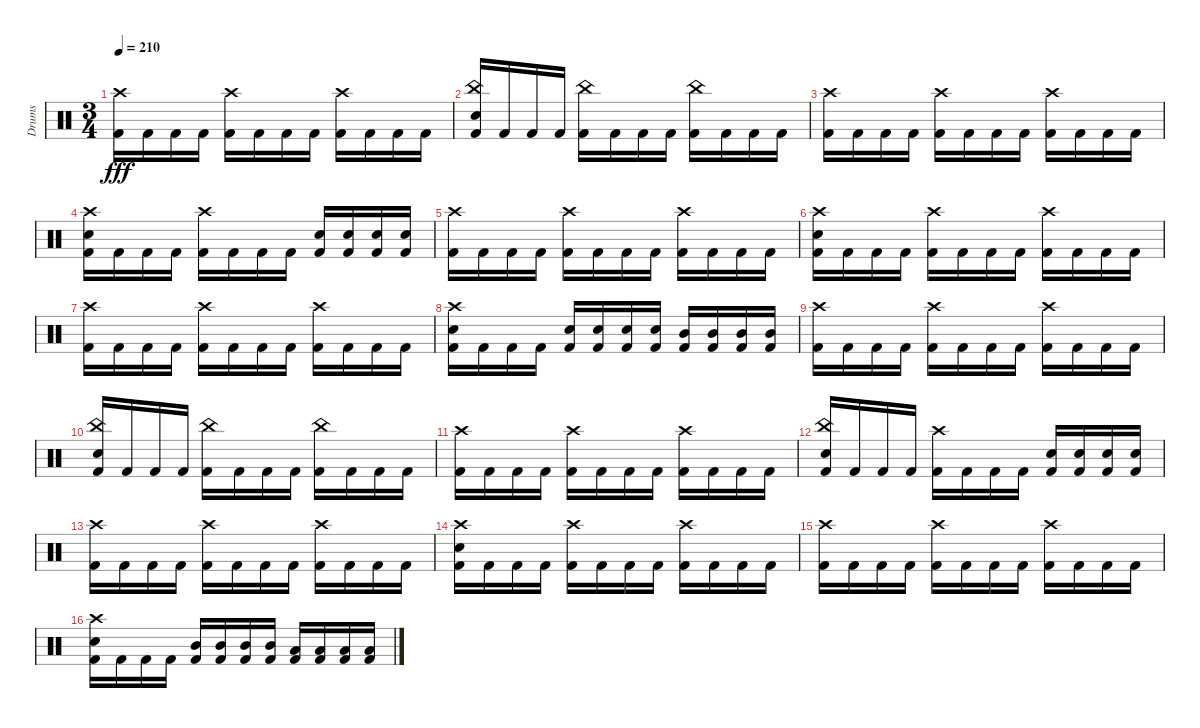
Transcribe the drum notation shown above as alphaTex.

\track ("Drums" "Drums") {instrument percussion}
\staff {score}
\articulation defaults
\ts (3 4)
\tempo 210
\clef neutral
\ks c
("Crash high (hit)" "Kick (hit) 2").16{dy fff} "Kick (hit) 2".16 "Kick (hit) 2".16 "Kick (hit) 2".16 ("Crash high (hit)" "Kick (hit) 2").16 "Kick (hit) 2".16 "Kick (hit) 2".16 "Kick (hit) 2".16 ("Crash high (hit)" "Kick (hit) 2").16 "Kick (hit) 2".16 "Kick (hit) 2".16 "Kick (hit) 2".16 |
("China (hit)" "Snare (hit) 2" "Kick (hit) 2").16 "Kick (hit) 2".16 "Kick (hit) 2".16 "Kick (hit) 2".16 ("China (hit)" "Kick (hit) 2").16 "Kick (hit) 2".16 "Kick (hit) 2".16 "Kick (hit) 2".16 ("China (hit)" "Kick (hit) 2").16 "Kick (hit) 2".16 "Kick (hit) 2".16 "Kick (hit) 2".16 |
("Crash high (hit)" "Kick (hit) 2").16 "Kick (hit) 2".16 "Kick (hit) 2".16 "Kick (hit) 2".16 ("Crash high (hit)" "Kick (hit) 2").16 "Kick (hit) 2".16 "Kick (hit) 2".16 "Kick (hit) 2".16 ("Crash high (hit)" "Kick (hit) 2").16 "Kick (hit) 2".16 "Kick (hit) 2".16 "Kick (hit) 2".16 |
("Crash high (hit)" "Snare (hit) 2" "Kick (hit) 2").16 "Kick (hit) 2".16 "Kick (hit) 2".16 "Kick (hit) 2".16 ("Crash high (hit)" "Kick (hit) 2").16 "Kick (hit) 2".16 "Kick (hit) 2".16 "Kick (hit) 2".16 ("Snare (hit) 2" "Kick (hit) 2").16 ("Snare (hit) 2" "Kick (hit) 2").16 ("Snare (hit) 2" "Kick (hit) 2").16 ("Snare (hit) 2" "Kick (hit) 2").16 |
("Crash high (hit)" "Kick (hit) 2").16 "Kick (hit) 2".16 "Kick (hit) 2".16 "Kick (hit) 2".16 ("Crash high (hit)" "Kick (hit) 2").16 "Kick (hit) 2".16 "Kick (hit) 2".16 "Kick (hit) 2".16 ("Crash high (hit)" "Kick (hit) 2").16 "Kick (hit) 2".16 "Kick (hit) 2".16 "Kick (hit) 2".16 |
("Crash high (hit)" "Snare (hit) 2" "Kick (hit) 2").16 "Kick (hit) 2".16 "Kick (hit) 2".16 "Kick (hit) 2".16 ("Crash high (hit)" "Kick (hit) 2").16 "Kick (hit) 2".16 "Kick (hit) 2".16 "Kick (hit) 2".16 ("Crash high (hit)" "Kick (hit) 2").16 "Kick (hit) 2".16 "Kick (hit) 2".16 "Kick (hit) 2".16 |
("Crash high (hit)" "Kick (hit) 2").16 "Kick (hit) 2".16 "Kick (hit) 2".16 "Kick (hit) 2".16 ("Crash high (hit)" "Kick (hit) 2").16 "Kick (hit) 2".16 "Kick (hit) 2".16 "Kick (hit) 2".16 ("Crash high (hit)" "Kick (hit) 2").16 "Kick (hit) 2".16 "Kick (hit) 2".16 "Kick (hit) 2".16 |
("Crash high (hit)" "Snare (hit) 2" "Kick (hit) 2").16 "Kick (hit) 2".16 "Kick (hit) 2".16 "Kick (hit) 2".16 ("Snare (hit) 2" "Kick (hit) 2").16 ("Snare (hit) 2" "Kick (hit) 2").16 ("Snare (hit) 2" "Kick (hit) 2").16 ("Snare (hit) 2" "Kick (hit) 2").16 ("Mid Tom (hit)" "Kick (hit) 2").16 ("Mid Tom (hit)" "Kick (hit) 2").16 ("Mid Tom (hit)" "Kick (hit) 2").16 ("Mid Tom (hit)" "Kick (hit) 2").16 |
("Crash high (hit)" "Kick (hit) 2").16 "Kick (hit) 2".16 "Kick (hit) 2".16 "Kick (hit) 2".16 ("Crash high (hit)" "Kick (hit) 2").16 "Kick (hit) 2".16 "Kick (hit) 2".16 "Kick (hit) 2".16 ("Crash high (hit)" "Kick (hit) 2").16 "Kick (hit) 2".16 "Kick (hit) 2".16 "Kick (hit) 2".16 |
("China (hit)" "Snare (hit) 2" "Kick (hit) 2").16 "Kick (hit) 2".16 "Kick (hit) 2".16 "Kick (hit) 2".16 ("China (hit)" "Kick (hit) 2").16 "Kick (hit) 2".16 "Kick (hit) 2".16 "Kick (hit) 2".16 ("China (hit)" "Kick (hit) 2").16 "Kick (hit) 2".16 "Kick (hit) 2".16 "Kick (hit) 2".16 |
("Crash high (hit)" "Kick (hit) 2").16 "Kick (hit) 2".16 "Kick (hit) 2".16 "Kick (hit) 2".16 ("Crash high (hit)" "Kick (hit) 2").16 "Kick (hit) 2".16 "Kick (hit) 2".16 "Kick (hit) 2".16 ("Crash high (hit)" "Kick (hit) 2").16 "Kick (hit) 2".16 "Kick (hit) 2".16 "Kick (hit) 2".16 |
("China (hit)" "Snare (hit) 2" "Kick (hit) 2").16 "Kick (hit) 2".16 "Kick (hit) 2".16 "Kick (hit) 2".16 ("Crash high (hit)" "Kick (hit) 2").16 "Kick (hit) 2".16 "Kick (hit) 2".16 "Kick (hit) 2".16 ("Snare (hit) 2" "Kick (hit) 2").16 ("Snare (hit) 2" "Kick (hit) 2").16 ("Snare (hit) 2" "Kick (hit) 2").16 ("Snare (hit) 2" "Kick (hit) 2").16 |
("Crash high (hit)" "Kick (hit) 2").16 "Kick (hit) 2".16 "Kick (hit) 2".16 "Kick (hit) 2".16 ("Crash high (hit)" "Kick (hit) 2").16 "Kick (hit) 2".16 "Kick (hit) 2".16 "Kick (hit) 2".16 ("Crash high (hit)" "Kick (hit) 2").16 "Kick (hit) 2".16 "Kick (hit) 2".16 "Kick (hit) 2".16 |
("Crash high (hit)" "Snare (hit) 2" "Kick (hit) 2").16 "Kick (hit) 2".16 "Kick (hit) 2".16 "Kick (hit) 2".16 ("Crash high (hit)" "Kick (hit) 2").16 "Kick (hit) 2".16 "Kick (hit) 2".16 "Kick (hit) 2".16 ("Crash high (hit)" "Kick (hit) 2").16 "Kick (hit) 2".16 "Kick (hit) 2".16 "Kick (hit) 2".16 |
("Crash high (hit)" "Kick (hit) 2").16 "Kick (hit) 2".16 "Kick (hit) 2".16 "Kick (hit) 2".16 ("Crash high (hit)" "Kick (hit) 2").16 "Kick (hit) 2".16 "Kick (hit) 2".16 "Kick (hit) 2".16 ("Crash high (hit)" "Kick (hit) 2").16 "Kick (hit) 2".16 "Kick (hit) 2".16 "Kick (hit) 2".16 |
("Crash high (hit)" "Snare (hit) 2" "Kick (hit) 2").16 "Kick (hit) 2".16 "Kick (hit) 2".16 "Kick (hit) 2".16 ("Mid Tom (hit)" "Kick (hit) 2").16 ("Mid Tom (hit)" "Kick (hit) 2").16 ("Mid Tom (hit)" "Kick (hit) 2").16 ("Mid Tom (hit)" "Kick (hit) 2").16 ("Low Tom (hit)" "Kick (hit) 2").16 ("Low Tom (hit)" "Kick (hit) 2").16 ("Low Tom (hit)" "Kick (hit) 2").16 ("Low Tom (hit)" "Kick (hit) 2").16
